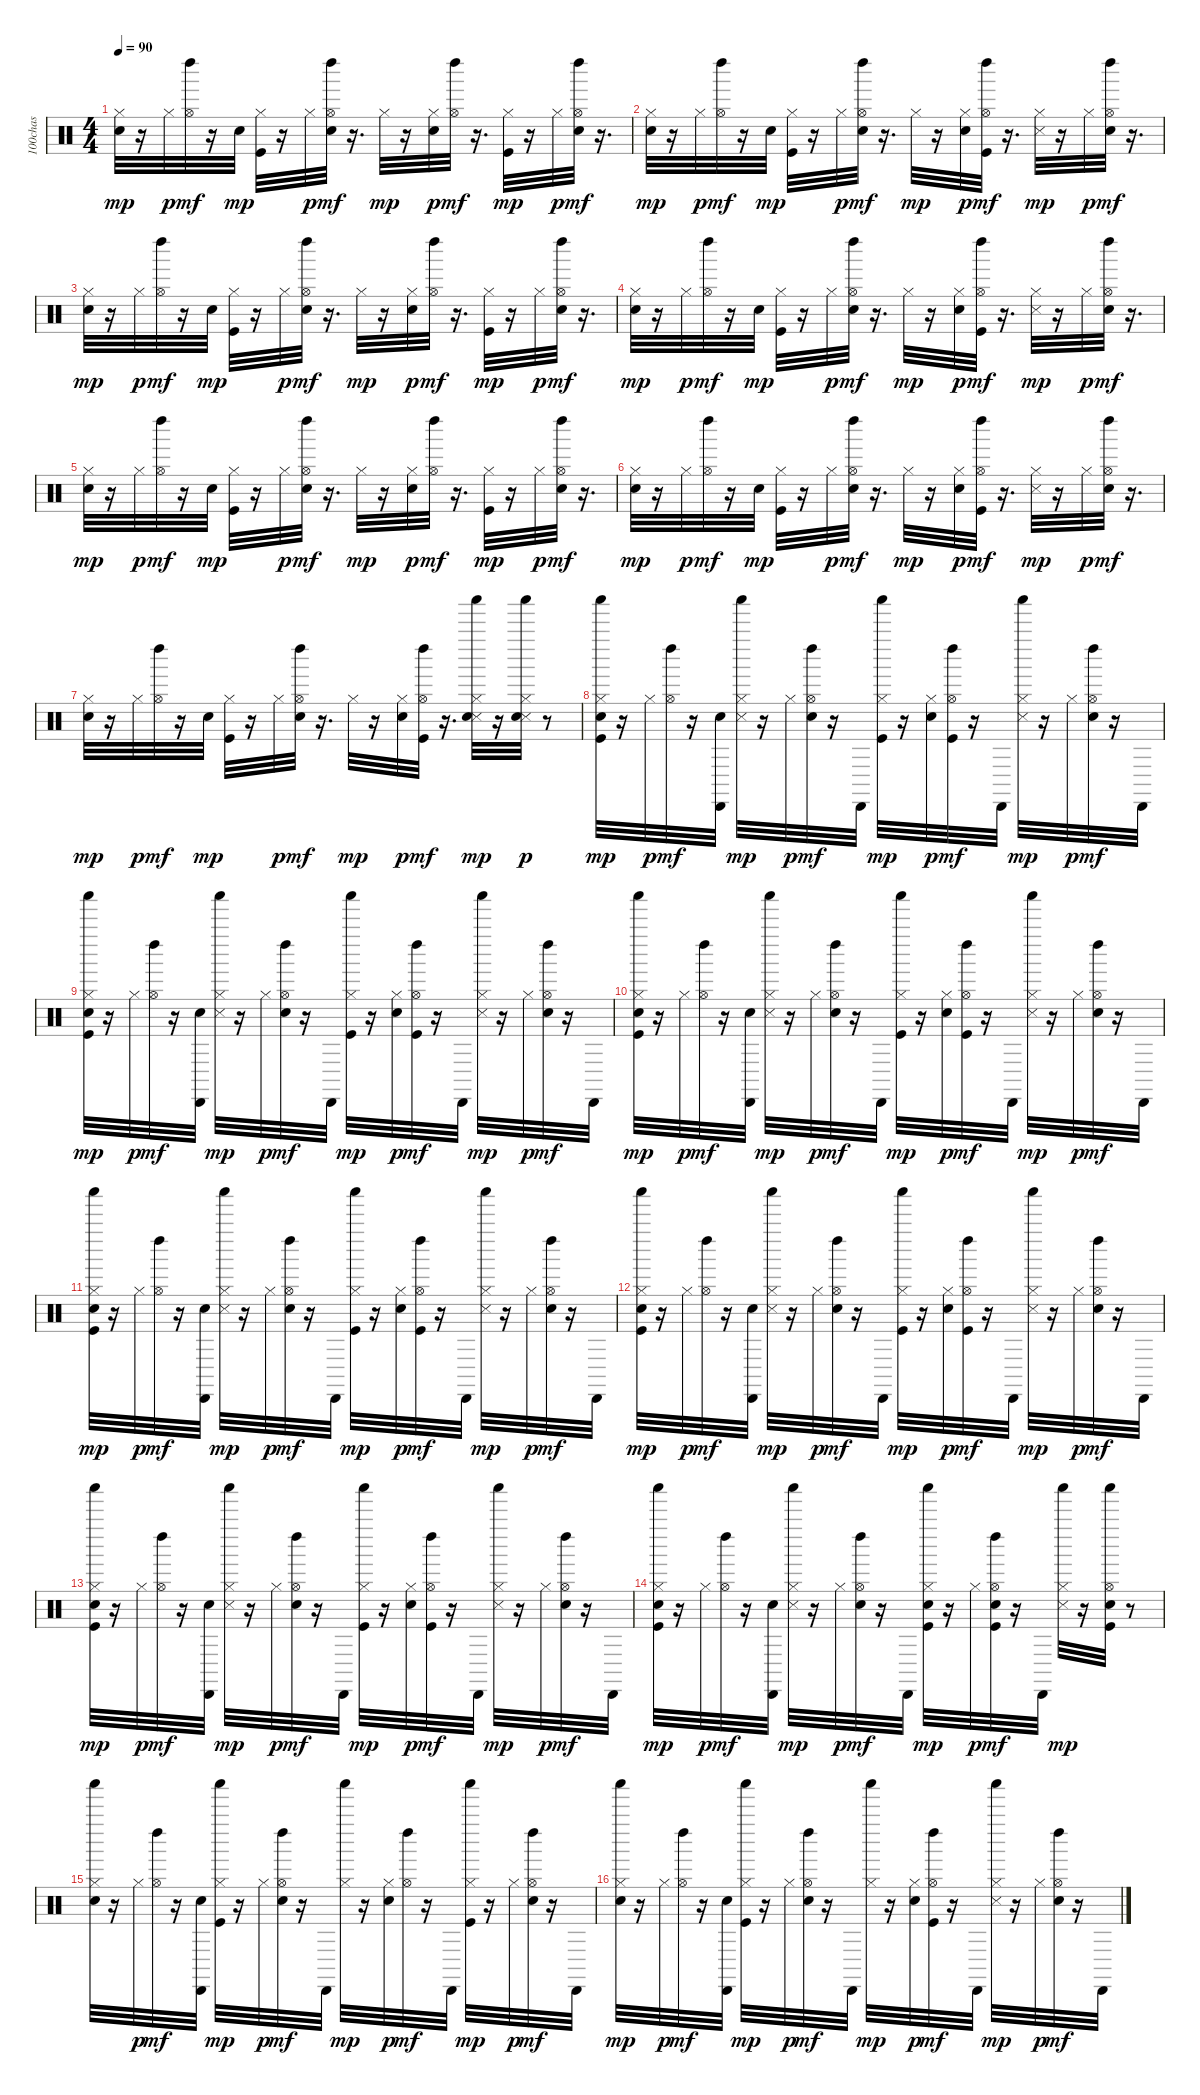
\track ("100chas" "100chas") {instrument percussion}
\staff {score}
\articulation defaults
\ts (4 4)
\tempo 90
\clef neutral
\ks c
("Hand Clap (hit)" "Hi-Hat (closed)").32{dy mp} r.16 "Hi-Hat (closed)".32{dy p} ("Hi-Hat (open)" "Left Maraca (hit)").32{dy mf} r.16 "Hand Clap (hit)".32{dy mp} ("Kick (hit)" "Hi-Hat (closed)").32 r.16 "Hi-Hat (closed)".32{dy p} ("Hand Clap (hit)" "Hi-Hat (open)" "Left Maraca (hit)").32{dy mf} r.16{d} "Hi-Hat (closed)".32{dy mp} r.16 ("Hand Clap (hit)" "Hi-Hat (closed)").32{dy p} ("Hi-Hat (open)" "Left Maraca (hit)").32{dy mf} r.16{d} ("Kick (hit)" "Hi-Hat (closed)").32{dy mp} r.16 "Hi-Hat (closed)".32{dy p} ("Hand Clap (hit)" "Hi-Hat (open)" "Left Maraca (hit)").32{dy mf} r.16{d} |
("Hand Clap (hit)" "Hi-Hat (closed)").32{dy mp} r.16 "Hi-Hat (closed)".32{dy p} ("Hi-Hat (open)" "Left Maraca (hit)").32{dy mf} r.16 "Hand Clap (hit)".32{dy mp} ("Kick (hit)" "Hi-Hat (closed)").32 r.16 "Hi-Hat (closed)".32{dy p} ("Hand Clap (hit)" "Hi-Hat (open)" "Left Maraca (hit)").32{dy mf} r.16{d} "Hi-Hat (closed)".32{dy mp} r.16 ("Hand Clap (hit)" "Hi-Hat (closed)").32{dy p} ("Kick (hit)" "Hi-Hat (open)" "Left Maraca (hit)").32{dy mf} r.16{d} ("Snare (side stick) 3" "Hi-Hat (closed)").32{dy mp} r.16 "Hi-Hat (closed)".32{dy p} ("Hand Clap (hit)" "Hi-Hat (open)" "Left Maraca (hit)").32{dy mf} r.16{d} |
("Hand Clap (hit)" "Hi-Hat (closed)").32{dy mp} r.16 "Hi-Hat (closed)".32{dy p} ("Hi-Hat (open)" "Left Maraca (hit)").32{dy mf} r.16 "Hand Clap (hit)".32{dy mp} ("Kick (hit)" "Hi-Hat (closed)").32 r.16 "Hi-Hat (closed)".32{dy p} ("Hand Clap (hit)" "Hi-Hat (open)" "Left Maraca (hit)").32{dy mf} r.16{d} "Hi-Hat (closed)".32{dy mp} r.16 ("Hand Clap (hit)" "Hi-Hat (closed)").32{dy p} ("Hi-Hat (open)" "Left Maraca (hit)").32{dy mf} r.16{d} ("Kick (hit)" "Hi-Hat (closed)").32{dy mp} r.16 "Hi-Hat (closed)".32{dy p} ("Hand Clap (hit)" "Hi-Hat (open)" "Left Maraca (hit)").32{dy mf} r.16{d} |
("Hand Clap (hit)" "Hi-Hat (closed)").32{dy mp} r.16 "Hi-Hat (closed)".32{dy p} ("Hi-Hat (open)" "Left Maraca (hit)").32{dy mf} r.16 "Hand Clap (hit)".32{dy mp} ("Kick (hit)" "Hi-Hat (closed)").32 r.16 "Hi-Hat (closed)".32{dy p} ("Hand Clap (hit)" "Hi-Hat (open)" "Left Maraca (hit)").32{dy mf} r.16{d} "Hi-Hat (closed)".32{dy mp} r.16 ("Hand Clap (hit)" "Hi-Hat (closed)").32{dy p} ("Kick (hit)" "Hi-Hat (open)" "Left Maraca (hit)").32{dy mf} r.16{d} ("Snare (side stick) 3" "Hi-Hat (closed)").32{dy mp} r.16 "Hi-Hat (closed)".32{dy p} ("Hand Clap (hit)" "Hi-Hat (open)" "Left Maraca (hit)").32{dy mf} r.16{d} |
("Hand Clap (hit)" "Hi-Hat (closed)").32{dy mp} r.16 "Hi-Hat (closed)".32{dy p} ("Hi-Hat (open)" "Left Maraca (hit)").32{dy mf} r.16 "Hand Clap (hit)".32{dy mp} ("Kick (hit)" "Hi-Hat (closed)").32 r.16 "Hi-Hat (closed)".32{dy p} ("Hand Clap (hit)" "Hi-Hat (open)" "Left Maraca (hit)").32{dy mf} r.16{d} "Hi-Hat (closed)".32{dy mp} r.16 ("Hand Clap (hit)" "Hi-Hat (closed)").32{dy p} ("Hi-Hat (open)" "Left Maraca (hit)").32{dy mf} r.16{d} ("Kick (hit)" "Hi-Hat (closed)").32{dy mp} r.16 "Hi-Hat (closed)".32{dy p} ("Hand Clap (hit)" "Hi-Hat (open)" "Left Maraca (hit)").32{dy mf} r.16{d} |
("Hand Clap (hit)" "Hi-Hat (closed)").32{dy mp} r.16 "Hi-Hat (closed)".32{dy p} ("Hi-Hat (open)" "Left Maraca (hit)").32{dy mf} r.16 "Hand Clap (hit)".32{dy mp} ("Kick (hit)" "Hi-Hat (closed)").32 r.16 "Hi-Hat (closed)".32{dy p} ("Hand Clap (hit)" "Hi-Hat (open)" "Left Maraca (hit)").32{dy mf} r.16{d} "Hi-Hat (closed)".32{dy mp} r.16 ("Hand Clap (hit)" "Hi-Hat (closed)").32{dy p} ("Kick (hit)" "Hi-Hat (open)" "Left Maraca (hit)").32{dy mf} r.16{d} ("Snare (side stick) 3" "Hi-Hat (closed)").32{dy mp} r.16 "Hi-Hat (closed)".32{dy p} ("Hand Clap (hit)" "Hi-Hat (open)" "Left Maraca (hit)").32{dy mf} r.16{d} |
("Hand Clap (hit)" "Hi-Hat (closed)").32{dy mp} r.16 "Hi-Hat (closed)".32{dy p} ("Hi-Hat (open)" "Left Maraca (hit)").32{dy mf} r.16 "Hand Clap (hit)".32{dy mp} ("Kick (hit)" "Hi-Hat (closed)").32 r.16 "Hi-Hat (closed)".32{dy p} ("Hand Clap (hit)" "Hi-Hat (open)" "Left Maraca (hit)").32{dy mf} r.16{d} "Hi-Hat (closed)".32{dy mp} r.16 ("Hand Clap (hit)" "Hi-Hat (closed)").32{dy p} ("Kick (hit)" "Hi-Hat (open)" "Left Maraca (hit)").32{dy mf} r.16{d} ("Snare (side stick) 3" "Hand Clap (hit)" "Hi-Hat (closed)" "Shaker (hit)").32{dy mp} r.16 ("Snare (side stick) 3" "Hand Clap (hit)" "Hi-Hat (closed)" "Shaker (hit)").32{dy p} r.8 |
("Kick (hit)" "Hand Clap (hit)" "Hi-Hat (closed)" "Shaker (hit)").32{dy mp} r.16 "Hi-Hat (closed)".32{dy p} ("Hi-Hat (open)" "Left Maraca (hit)").32{dy mf} r.16 ("Hand Clap (hit)" "Cabasa (hit)").32 ("Snare (side stick) 3" "Hi-Hat (closed)" "Shaker (hit)").32{dy mp} r.16 "Hi-Hat (closed)".32{dy p} ("Hand Clap (hit)" "Hi-Hat (open)" "Left Maraca (hit)").32{dy mf} r.16 "Cabasa (hit)".32 ("Kick (hit)" "Hi-Hat (closed)" "Shaker (hit)").32{dy mp} r.16 ("Hand Clap (hit)" "Hi-Hat (closed)").32{dy p} ("Kick (hit)" "Hi-Hat (open)" "Left Maraca (hit)").32{dy mf} r.16 "Cabasa (hit)".32 ("Snare (side stick) 3" "Hi-Hat (closed)" "Shaker (hit)").32{dy mp} r.16 "Hi-Hat (closed)".32{dy p} ("Hand Clap (hit)" "Hi-Hat (open)" "Left Maraca (hit)").32{dy mf} r.16 "Cabasa (hit)".32 |
("Kick (hit)" "Hand Clap (hit)" "Hi-Hat (closed)" "Shaker (hit)").32{dy mp} r.16 "Hi-Hat (closed)".32{dy p} ("Hi-Hat (open)" "Left Maraca (hit)").32{dy mf} r.16 ("Hand Clap (hit)" "Cabasa (hit)").32 ("Snare (side stick) 3" "Hi-Hat (closed)" "Shaker (hit)").32{dy mp} r.16 "Hi-Hat (closed)".32{dy p} ("Hand Clap (hit)" "Hi-Hat (open)" "Left Maraca (hit)").32{dy mf} r.16 "Cabasa (hit)".32 ("Kick (hit)" "Hi-Hat (closed)" "Shaker (hit)").32{dy mp} r.16 ("Hand Clap (hit)" "Hi-Hat (closed)").32{dy p} ("Kick (hit)" "Hi-Hat (open)" "Left Maraca (hit)").32{dy mf} r.16 "Cabasa (hit)".32 ("Snare (side stick) 3" "Hi-Hat (closed)" "Shaker (hit)").32{dy mp} r.16 "Hi-Hat (closed)".32{dy p} ("Hand Clap (hit)" "Hi-Hat (open)" "Left Maraca (hit)").32{dy mf} r.16 "Cabasa (hit)".32 |
("Kick (hit)" "Hand Clap (hit)" "Hi-Hat (closed)" "Shaker (hit)").32{dy mp} r.16 "Hi-Hat (closed)".32{dy p} ("Hi-Hat (open)" "Left Maraca (hit)").32{dy mf} r.16 ("Hand Clap (hit)" "Cabasa (hit)").32 ("Snare (side stick) 3" "Hi-Hat (closed)" "Shaker (hit)").32{dy mp} r.16 "Hi-Hat (closed)".32{dy p} ("Hand Clap (hit)" "Hi-Hat (open)" "Left Maraca (hit)").32{dy mf} r.16 "Cabasa (hit)".32 ("Kick (hit)" "Hi-Hat (closed)" "Shaker (hit)").32{dy mp} r.16 ("Hand Clap (hit)" "Hi-Hat (closed)").32{dy p} ("Kick (hit)" "Hi-Hat (open)" "Left Maraca (hit)").32{dy mf} r.16 "Cabasa (hit)".32 ("Snare (side stick) 3" "Hi-Hat (closed)" "Shaker (hit)").32{dy mp} r.16 "Hi-Hat (closed)".32{dy p} ("Hand Clap (hit)" "Hi-Hat (open)" "Left Maraca (hit)").32{dy mf} r.16 "Cabasa (hit)".32 |
("Kick (hit)" "Hand Clap (hit)" "Hi-Hat (closed)" "Shaker (hit)").32{dy mp} r.16 "Hi-Hat (closed)".32{dy p} ("Hi-Hat (open)" "Left Maraca (hit)").32{dy mf} r.16 ("Hand Clap (hit)" "Cabasa (hit)").32 ("Snare (side stick) 3" "Hi-Hat (closed)" "Shaker (hit)").32{dy mp} r.16 "Hi-Hat (closed)".32{dy p} ("Hand Clap (hit)" "Hi-Hat (open)" "Left Maraca (hit)").32{dy mf} r.16 "Cabasa (hit)".32 ("Kick (hit)" "Hi-Hat (closed)" "Shaker (hit)").32{dy mp} r.16 ("Hand Clap (hit)" "Hi-Hat (closed)").32{dy p} ("Kick (hit)" "Hi-Hat (open)" "Left Maraca (hit)").32{dy mf} r.16 "Cabasa (hit)".32 ("Snare (side stick) 3" "Hi-Hat (closed)" "Shaker (hit)").32{dy mp} r.16 "Hi-Hat (closed)".32{dy p} ("Hand Clap (hit)" "Hi-Hat (open)" "Left Maraca (hit)").32{dy mf} r.16 "Cabasa (hit)".32 |
("Kick (hit)" "Hand Clap (hit)" "Hi-Hat (closed)" "Shaker (hit)").32{dy mp} r.16 "Hi-Hat (closed)".32{dy p} ("Hi-Hat (open)" "Left Maraca (hit)").32{dy mf} r.16 ("Hand Clap (hit)" "Cabasa (hit)").32 ("Snare (side stick) 3" "Hi-Hat (closed)" "Shaker (hit)").32{dy mp} r.16 "Hi-Hat (closed)".32{dy p} ("Hand Clap (hit)" "Hi-Hat (open)" "Left Maraca (hit)").32{dy mf} r.16 "Cabasa (hit)".32 ("Kick (hit)" "Hi-Hat (closed)" "Shaker (hit)").32{dy mp} r.16 ("Hand Clap (hit)" "Hi-Hat (closed)").32{dy p} ("Kick (hit)" "Hi-Hat (open)" "Left Maraca (hit)").32{dy mf} r.16 "Cabasa (hit)".32 ("Snare (side stick) 3" "Hi-Hat (closed)" "Shaker (hit)").32{dy mp} r.16 "Hi-Hat (closed)".32{dy p} ("Hand Clap (hit)" "Hi-Hat (open)" "Left Maraca (hit)").32{dy mf} r.16 "Cabasa (hit)".32 |
("Kick (hit)" "Hand Clap (hit)" "Hi-Hat (closed)" "Shaker (hit)").32{dy mp} r.16 "Hi-Hat (closed)".32{dy p} ("Hi-Hat (open)" "Left Maraca (hit)").32{dy mf} r.16 ("Hand Clap (hit)" "Cabasa (hit)").32 ("Snare (side stick) 3" "Hi-Hat (closed)" "Shaker (hit)").32{dy mp} r.16 "Hi-Hat (closed)".32{dy p} ("Hand Clap (hit)" "Hi-Hat (open)" "Left Maraca (hit)").32{dy mf} r.16 "Cabasa (hit)".32 ("Kick (hit)" "Hi-Hat (closed)" "Shaker (hit)").32{dy mp} r.16 ("Hand Clap (hit)" "Hi-Hat (closed)").32{dy p} ("Kick (hit)" "Hi-Hat (open)" "Left Maraca (hit)").32{dy mf} r.16 "Cabasa (hit)".32 ("Snare (side stick) 3" "Hi-Hat (closed)" "Shaker (hit)").32{dy mp} r.16 "Hi-Hat (closed)".32{dy p} ("Hand Clap (hit)" "Hi-Hat (open)" "Left Maraca (hit)").32{dy mf} r.16 "Cabasa (hit)".32 |
("Kick (hit)" "Hand Clap (hit)" "Hi-Hat (closed)" "Shaker (hit)").32{dy mp} r.16 "Hi-Hat (closed)".32{dy p} ("Hi-Hat (open)" "Left Maraca (hit)").32{dy mf} r.16 ("Hand Clap (hit)" "Cabasa (hit)").32 ("Snare (side stick) 3" "Hi-Hat (closed)" "Shaker (hit)").32{dy mp} r.16 "Hi-Hat (closed)".32{dy p} ("Hand Clap (hit)" "Hi-Hat (open)" "Left Maraca (hit)").32{dy mf} r.16 "Cabasa (hit)".32 ("Kick (hit)" "Hand Clap (hit)" "Hi-Hat (closed)" "Shaker (hit)").32{dy mp} r.16 "Hi-Hat (closed)".32{dy p} ("Kick (hit)" "Hand Clap (hit)" "Hi-Hat (open)" "Left Maraca (hit)").32{dy mf} r.16 "Cabasa (hit)".32 ("Snare (side stick) 3" "Hi-Hat (closed)" "Shaker (hit)").32{dy mp} r.16 ("Kick (hit)" "Hand Clap (hit)" "Hi-Hat (open)" "Shaker (hit)").32 r.8 |
("Hand Clap (hit)" "Hi-Hat (closed)" "Shaker (hit)").32 r.16 "Hi-Hat (closed)".32{dy p} ("Hi-Hat (open)" "Left Maraca (hit)").32{dy mf} r.16 ("Hand Clap (hit)" "Cabasa (hit)").32 ("Kick (hit)" "Hi-Hat (closed)" "Shaker (hit)").32{dy mp} r.16 "Hi-Hat (closed)".32{dy p} ("Hand Clap (hit)" "Hi-Hat (open)" "Left Maraca (hit)").32{dy mf} r.16 "Cabasa (hit)".32 ("Hi-Hat (closed)" "Shaker (hit)").32{dy mp} r.16 ("Hand Clap (hit)" "Hi-Hat (closed)").32{dy p} ("Hi-Hat (open)" "Left Maraca (hit)").32{dy mf} r.16 "Cabasa (hit)".32 ("Kick (hit)" "Hi-Hat (closed)" "Shaker (hit)").32{dy mp} r.16 "Hi-Hat (closed)".32{dy p} ("Hand Clap (hit)" "Hi-Hat (open)" "Left Maraca (hit)").32{dy mf} r.16 "Cabasa (hit)".32 |
("Hand Clap (hit)" "Hi-Hat (closed)" "Shaker (hit)").32{dy mp} r.16 "Hi-Hat (closed)".32{dy p} ("Hi-Hat (open)" "Left Maraca (hit)").32{dy mf} r.16 ("Hand Clap (hit)" "Cabasa (hit)").32 ("Kick (hit)" "Hi-Hat (closed)" "Shaker (hit)").32{dy mp} r.16 "Hi-Hat (closed)".32{dy p} ("Hand Clap (hit)" "Hi-Hat (open)" "Left Maraca (hit)").32{dy mf} r.16 "Cabasa (hit)".32 ("Hi-Hat (closed)" "Shaker (hit)").32{dy mp} r.16 ("Hand Clap (hit)" "Hi-Hat (closed)").32{dy p} ("Kick (hit)" "Hi-Hat (open)" "Left Maraca (hit)").32{dy mf} r.16 "Cabasa (hit)".32 ("Snare (side stick) 3" "Hi-Hat (closed)" "Shaker (hit)").32{dy mp} r.16 "Hi-Hat (closed)".32{dy p} ("Hand Clap (hit)" "Hi-Hat (open)" "Left Maraca (hit)").32{dy mf} r.16 "Cabasa (hit)".32
